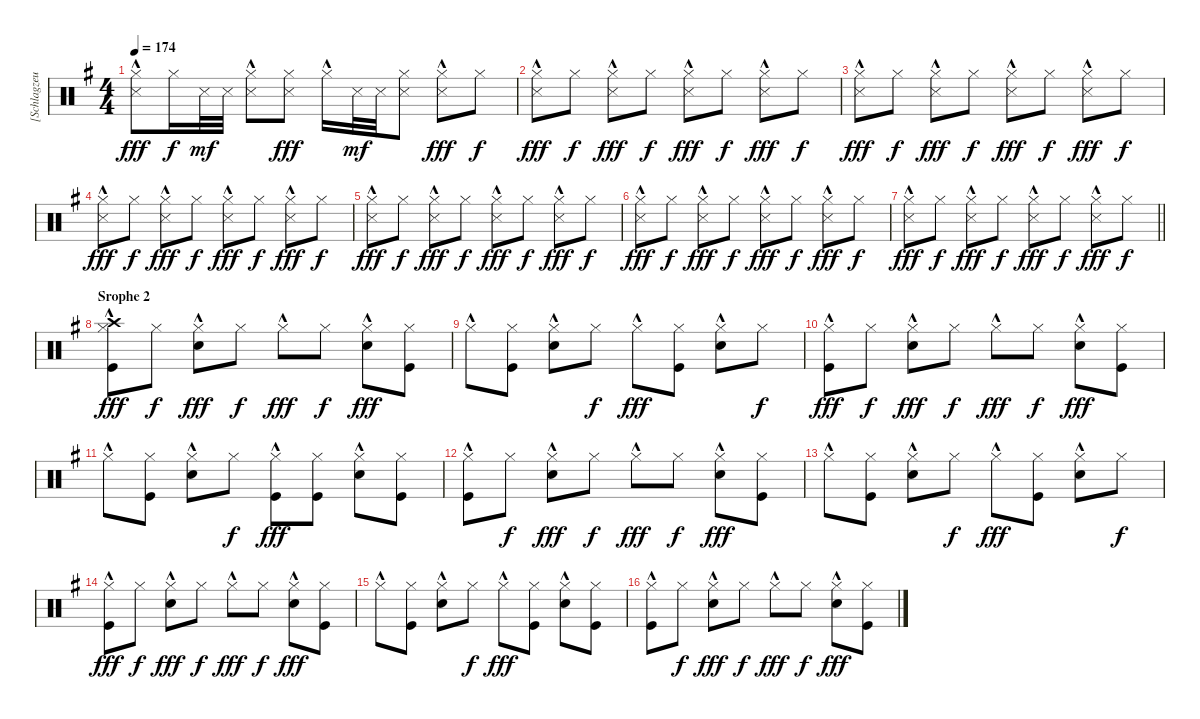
\track ("[Schlagzeug]" "[Schlagzeu") {instrument percussion}
\staff {score}
\articulation defaults
\ts (4 4)
\tempo 174
\clef neutral
\ks g
("Hi-Hat (closed)"{hac} "Snare (side stick) 3").8{dy fff} "Hi-Hat (closed)".16{dy f} "Snare (side stick) 3".32{dy mf} "Snare (side stick) 3".32 ("Hi-Hat (closed)"{hac} "Snare (side stick) 3").8 ("Hi-Hat (closed)" "Snare (side stick) 3").8{dy fff} "Hi-Hat (closed)"{hac}.16 "Snare (side stick) 3".32{dy mf} "Snare (side stick) 3".32 ("Hi-Hat (closed)" "Snare (side stick) 3").8 ("Hi-Hat (closed)"{hac} "Snare (side stick) 3").8{dy fff} "Hi-Hat (closed)".8{dy f} |
("Hi-Hat (closed)"{hac} "Snare (side stick) 3").8{dy fff} "Hi-Hat (closed)".8{dy f} ("Hi-Hat (closed)"{hac} "Snare (side stick) 3").8{dy fff} "Hi-Hat (closed)".8{dy f} ("Hi-Hat (closed)"{hac} "Snare (side stick) 3").8{dy fff} "Hi-Hat (closed)".8{dy f} ("Hi-Hat (closed)"{hac} "Snare (side stick) 3").8{dy fff} "Hi-Hat (closed)".8{dy f} |
("Hi-Hat (closed)"{hac} "Snare (side stick) 3").8{dy fff} "Hi-Hat (closed)".8{dy f} ("Hi-Hat (closed)"{hac} "Snare (side stick) 3").8{dy fff} "Hi-Hat (closed)".8{dy f} ("Hi-Hat (closed)"{hac} "Snare (side stick) 3").8{dy fff} "Hi-Hat (closed)".8{dy f} ("Hi-Hat (closed)"{hac} "Snare (side stick) 3").8{dy fff} "Hi-Hat (closed)".8{dy f} |
("Hi-Hat (closed)"{hac} "Snare (side stick) 3").8{dy fff} "Hi-Hat (closed)".8{dy f} ("Hi-Hat (closed)"{hac} "Snare (side stick) 3").8{dy fff} "Hi-Hat (closed)".8{dy f} ("Hi-Hat (closed)"{hac} "Snare (side stick) 3").8{dy fff} "Hi-Hat (closed)".8{dy f} ("Hi-Hat (closed)"{hac} "Snare (side stick) 3").8{dy fff} "Hi-Hat (closed)".8{dy f} |
("Hi-Hat (closed)"{hac} "Snare (side stick) 3").8{dy fff} "Hi-Hat (closed)".8{dy f} ("Hi-Hat (closed)"{hac} "Snare (side stick) 3").8{dy fff} "Hi-Hat (closed)".8{dy f} ("Hi-Hat (closed)"{hac} "Snare (side stick) 3").8{dy fff} "Hi-Hat (closed)".8{dy f} ("Hi-Hat (closed)"{hac} "Snare (side stick) 3").8{dy fff} "Hi-Hat (closed)".8{dy f} |
("Hi-Hat (closed)"{hac} "Snare (side stick) 3").8{dy fff} "Hi-Hat (closed)".8{dy f} ("Hi-Hat (closed)"{hac} "Snare (side stick) 3").8{dy fff} "Hi-Hat (closed)".8{dy f} ("Hi-Hat (closed)"{hac} "Snare (side stick) 3").8{dy fff} "Hi-Hat (closed)".8{dy f} ("Hi-Hat (closed)"{hac} "Snare (side stick) 3").8{dy fff} "Hi-Hat (closed)".8{dy f} |
\barLineRight lightlight
("Hi-Hat (closed)"{hac} "Snare (side stick) 3").8{dy fff} "Hi-Hat (closed)".8{dy f} ("Hi-Hat (closed)"{hac} "Snare (side stick) 3").8{dy fff} "Hi-Hat (closed)".8{dy f} ("Hi-Hat (closed)"{hac} "Snare (side stick) 3").8{dy fff} "Hi-Hat (closed)".8{dy f} ("Hi-Hat (closed)"{hac} "Snare (side stick) 3").8{dy fff} "Hi-Hat (closed)".8{dy f} |
\section ("" "Srophe 2")
("Crash high (hit)" "Hi-Hat (closed)"{hac} "Kick (hit)").8{dy fff} "Hi-Hat (closed)".8{dy f} ("Hi-Hat (closed)"{hac} "Electric Snare (hit)").8{dy fff} "Hi-Hat (closed)".8{dy f} "Hi-Hat (closed)"{hac}.8{dy fff} "Hi-Hat (closed)".8{dy f} ("Hi-Hat (closed)"{hac} "Electric Snare (hit)").8{dy fff} ("Hi-Hat (closed)" "Kick (hit)").8 |
"Hi-Hat (closed)"{hac}.8 ("Hi-Hat (closed)" "Kick (hit)").8 ("Hi-Hat (closed)"{hac} "Electric Snare (hit)").8 "Hi-Hat (closed)".8{dy f} "Hi-Hat (closed)"{hac}.8{dy fff} ("Hi-Hat (closed)" "Kick (hit)").8 ("Hi-Hat (closed)"{hac} "Electric Snare (hit)").8 "Hi-Hat (closed)".8{dy f} |
("Hi-Hat (closed)"{hac} "Kick (hit)").8{dy fff} "Hi-Hat (closed)".8{dy f} ("Hi-Hat (closed)"{hac} "Electric Snare (hit)").8{dy fff} "Hi-Hat (closed)".8{dy f} "Hi-Hat (closed)"{hac}.8{dy fff} "Hi-Hat (closed)".8{dy f} ("Hi-Hat (closed)"{hac} "Electric Snare (hit)").8{dy fff} ("Hi-Hat (closed)" "Kick (hit)").8 |
"Hi-Hat (closed)"{hac}.8 ("Hi-Hat (closed)" "Kick (hit)").8 ("Hi-Hat (closed)"{hac} "Electric Snare (hit)").8 "Hi-Hat (closed)".8{dy f} ("Hi-Hat (closed)"{hac} "Kick (hit)").8{dy fff} ("Hi-Hat (closed)" "Kick (hit)").8 ("Hi-Hat (closed)"{hac} "Electric Snare (hit)").8 ("Hi-Hat (closed)" "Kick (hit)").8 |
("Hi-Hat (closed)"{hac} "Kick (hit)").8 "Hi-Hat (closed)".8{dy f} ("Hi-Hat (closed)"{hac} "Electric Snare (hit)").8{dy fff} "Hi-Hat (closed)".8{dy f} "Hi-Hat (closed)"{hac}.8{dy fff} "Hi-Hat (closed)".8{dy f} ("Hi-Hat (closed)"{hac} "Electric Snare (hit)").8{dy fff} ("Hi-Hat (closed)" "Kick (hit)").8 |
"Hi-Hat (closed)"{hac}.8 ("Hi-Hat (closed)" "Kick (hit)").8 ("Hi-Hat (closed)"{hac} "Electric Snare (hit)").8 "Hi-Hat (closed)".8{dy f} "Hi-Hat (closed)"{hac}.8{dy fff} ("Hi-Hat (closed)" "Kick (hit)").8 ("Hi-Hat (closed)"{hac} "Electric Snare (hit)").8 "Hi-Hat (closed)".8{dy f} |
("Hi-Hat (closed)"{hac} "Kick (hit)").8{dy fff} "Hi-Hat (closed)".8{dy f} ("Hi-Hat (closed)"{hac} "Electric Snare (hit)").8{dy fff} "Hi-Hat (closed)".8{dy f} "Hi-Hat (closed)"{hac}.8{dy fff} "Hi-Hat (closed)".8{dy f} ("Hi-Hat (closed)"{hac} "Electric Snare (hit)").8{dy fff} ("Hi-Hat (closed)" "Kick (hit)").8 |
"Hi-Hat (closed)"{hac}.8 ("Hi-Hat (closed)" "Kick (hit)").8 ("Hi-Hat (closed)"{hac} "Electric Snare (hit)").8 "Hi-Hat (closed)".8{dy f} "Hi-Hat (closed)"{hac}.8{dy fff} ("Hi-Hat (closed)" "Kick (hit)").8 ("Hi-Hat (closed)"{hac} "Electric Snare (hit)").8 ("Hi-Hat (closed)" "Kick (hit)").8 |
("Hi-Hat (closed)"{hac} "Kick (hit)").8 "Hi-Hat (closed)".8{dy f} ("Hi-Hat (closed)"{hac} "Electric Snare (hit)").8{dy fff} "Hi-Hat (closed)".8{dy f} "Hi-Hat (closed)"{hac}.8{dy fff} "Hi-Hat (closed)".8{dy f} ("Hi-Hat (closed)"{hac} "Electric Snare (hit)").8{dy fff} ("Hi-Hat (closed)" "Kick (hit)").8
